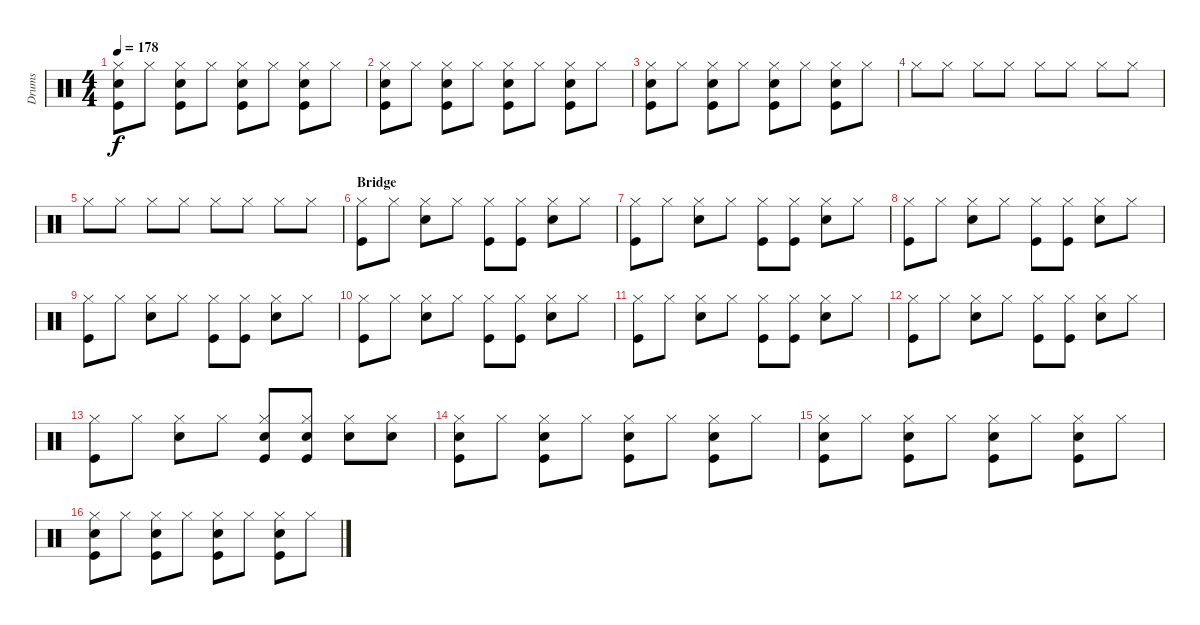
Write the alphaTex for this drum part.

\track ("Drums" "Drums") {instrument percussion}
\staff {score}
\articulation defaults
\ts (4 4)
\tempo 178
\clef neutral
\ks c
("Electric Snare (hit)" "Hi-Hat (closed)" "Kick (hit)").8{dy f} "Hi-Hat (closed)".8 ("Electric Snare (hit)" "Hi-Hat (closed)" "Kick (hit)").8 "Hi-Hat (closed)".8 ("Electric Snare (hit)" "Hi-Hat (closed)" "Kick (hit)").8 "Hi-Hat (closed)".8 ("Electric Snare (hit)" "Hi-Hat (closed)" "Kick (hit)").8 "Hi-Hat (closed)".8 |
("Electric Snare (hit)" "Hi-Hat (closed)" "Kick (hit)").8 "Hi-Hat (closed)".8 ("Electric Snare (hit)" "Hi-Hat (closed)" "Kick (hit)").8 "Hi-Hat (closed)".8 ("Electric Snare (hit)" "Hi-Hat (closed)" "Kick (hit)").8 "Hi-Hat (closed)".8 ("Electric Snare (hit)" "Hi-Hat (closed)" "Kick (hit)").8 "Hi-Hat (closed)".8 |
("Electric Snare (hit)" "Hi-Hat (closed)" "Kick (hit)").8 "Hi-Hat (closed)".8 ("Electric Snare (hit)" "Hi-Hat (closed)" "Kick (hit)").8 "Hi-Hat (closed)".8 ("Electric Snare (hit)" "Hi-Hat (closed)" "Kick (hit)").8 "Hi-Hat (closed)".8 ("Electric Snare (hit)" "Hi-Hat (closed)" "Kick (hit)").8 "Hi-Hat (closed)".8 |
"Hi-Hat (closed)".8 "Hi-Hat (closed)".8 "Hi-Hat (closed)".8 "Hi-Hat (closed)".8 "Hi-Hat (closed)".8 "Hi-Hat (closed)".8 "Hi-Hat (closed)".8 "Hi-Hat (closed)".8 |
"Hi-Hat (closed)".8 "Hi-Hat (closed)".8 "Hi-Hat (closed)".8 "Hi-Hat (closed)".8 "Hi-Hat (closed)".8 "Hi-Hat (closed)".8 "Hi-Hat (closed)".8 "Hi-Hat (closed)".8 |
\section ("" "Bridge")
("Hi-Hat (closed)" "Kick (hit)").8 "Hi-Hat (closed)".8 ("Electric Snare (hit)" "Hi-Hat (closed)").8 "Hi-Hat (closed)".8 ("Hi-Hat (closed)" "Kick (hit)").8 ("Hi-Hat (closed)" "Kick (hit)").8 ("Electric Snare (hit)" "Hi-Hat (closed)").8 "Hi-Hat (closed)".8 |
("Hi-Hat (closed)" "Kick (hit)").8 "Hi-Hat (closed)".8 ("Electric Snare (hit)" "Hi-Hat (closed)").8 "Hi-Hat (closed)".8 ("Hi-Hat (closed)" "Kick (hit)").8 ("Hi-Hat (closed)" "Kick (hit)").8 ("Electric Snare (hit)" "Hi-Hat (closed)").8 "Hi-Hat (closed)".8 |
("Hi-Hat (closed)" "Kick (hit)").8 "Hi-Hat (closed)".8 ("Electric Snare (hit)" "Hi-Hat (closed)").8 "Hi-Hat (closed)".8 ("Hi-Hat (closed)" "Kick (hit)").8 ("Hi-Hat (closed)" "Kick (hit)").8 ("Electric Snare (hit)" "Hi-Hat (closed)").8 "Hi-Hat (closed)".8 |
("Hi-Hat (closed)" "Kick (hit)").8 "Hi-Hat (closed)".8 ("Electric Snare (hit)" "Hi-Hat (closed)").8 "Hi-Hat (closed)".8 ("Hi-Hat (closed)" "Kick (hit)").8 ("Hi-Hat (closed)" "Kick (hit)").8 ("Electric Snare (hit)" "Hi-Hat (closed)").8 "Hi-Hat (closed)".8 |
("Hi-Hat (closed)" "Kick (hit)").8 "Hi-Hat (closed)".8 ("Electric Snare (hit)" "Hi-Hat (closed)").8 "Hi-Hat (closed)".8 ("Hi-Hat (closed)" "Kick (hit)").8 ("Hi-Hat (closed)" "Kick (hit)").8 ("Electric Snare (hit)" "Hi-Hat (closed)").8 "Hi-Hat (closed)".8 |
("Hi-Hat (closed)" "Kick (hit)").8 "Hi-Hat (closed)".8 ("Electric Snare (hit)" "Hi-Hat (closed)").8 "Hi-Hat (closed)".8 ("Hi-Hat (closed)" "Kick (hit)").8 ("Hi-Hat (closed)" "Kick (hit)").8 ("Electric Snare (hit)" "Hi-Hat (closed)").8 "Hi-Hat (closed)".8 |
("Hi-Hat (closed)" "Kick (hit)").8 "Hi-Hat (closed)".8 ("Electric Snare (hit)" "Hi-Hat (closed)").8 "Hi-Hat (closed)".8 ("Hi-Hat (closed)" "Kick (hit)").8 ("Hi-Hat (closed)" "Kick (hit)").8 ("Electric Snare (hit)" "Hi-Hat (closed)").8 "Hi-Hat (closed)".8 |
("Hi-Hat (closed)" "Kick (hit)").8 "Hi-Hat (closed)".8 ("Electric Snare (hit)" "Hi-Hat (closed)").8 "Hi-Hat (closed)".8 ("Electric Snare (hit)" "Hi-Hat (closed)" "Kick (hit)").8 ("Electric Snare (hit)" "Hi-Hat (closed)" "Kick (hit)").8 ("Electric Snare (hit)" "Hi-Hat (closed)").8 ("Electric Snare (hit)" "Hi-Hat (closed)").8 |
("Electric Snare (hit)" "Hi-Hat (closed)" "Kick (hit)").8 "Hi-Hat (closed)".8 ("Electric Snare (hit)" "Hi-Hat (closed)" "Kick (hit)").8 "Hi-Hat (closed)".8 ("Electric Snare (hit)" "Hi-Hat (closed)" "Kick (hit)").8 "Hi-Hat (closed)".8 ("Electric Snare (hit)" "Hi-Hat (closed)" "Kick (hit)").8 "Hi-Hat (closed)".8 |
("Electric Snare (hit)" "Hi-Hat (closed)" "Kick (hit)").8 "Hi-Hat (closed)".8 ("Electric Snare (hit)" "Hi-Hat (closed)" "Kick (hit)").8 "Hi-Hat (closed)".8 ("Electric Snare (hit)" "Hi-Hat (closed)" "Kick (hit)").8 "Hi-Hat (closed)".8 ("Electric Snare (hit)" "Hi-Hat (closed)" "Kick (hit)").8 "Hi-Hat (closed)".8 |
("Electric Snare (hit)" "Hi-Hat (closed)" "Kick (hit)").8 "Hi-Hat (closed)".8 ("Electric Snare (hit)" "Hi-Hat (closed)" "Kick (hit)").8 "Hi-Hat (closed)".8 ("Electric Snare (hit)" "Hi-Hat (closed)" "Kick (hit)").8 "Hi-Hat (closed)".8 ("Electric Snare (hit)" "Hi-Hat (closed)" "Kick (hit)").8 "Hi-Hat (closed)".8
